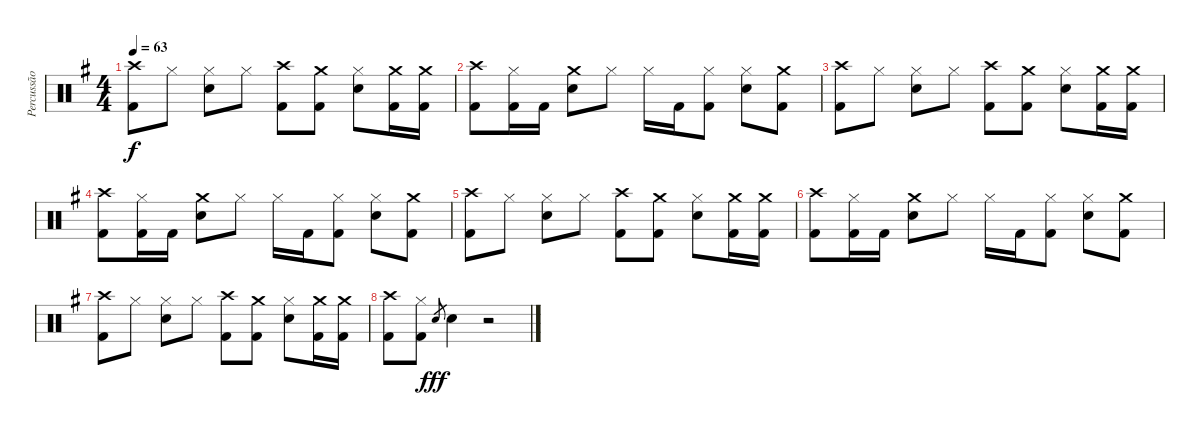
\track ("Percussão" "Percussão") {instrument percussion}
\staff {score}
\articulation defaults
\ts (4 4)
\tempo 63
\clef neutral
\ks g
("Crash high (hit)" "Kick (hit) 2").8{dy f} "Hi-Hat (closed)".8 ("Hi-Hat (closed)" "Electric Snare (hit)").8 "Hi-Hat (closed)".8 ("Crash high (hit)" "Kick (hit) 2").8 ("Crash medium (hit)" "Kick (hit) 2").8 ("Hi-Hat (closed)" "Electric Snare (hit)").8 ("Crash medium (hit)" "Kick (hit) 2").16 ("Crash medium (hit)" "Kick (hit) 2").16 |
("Crash high (hit)" "Kick (hit) 2").8 ("Hi-Hat (closed)" "Kick (hit) 2").16 "Kick (hit) 2".16 ("Crash medium (hit)" "Electric Snare (hit)").8 "Hi-Hat (closed)".8 "Hi-Hat (closed)".16 "Kick (hit) 2".16 ("Hi-Hat (closed)" "Kick (hit) 2").8 ("Hi-Hat (closed)" "Electric Snare (hit)").8 ("Crash medium (hit)" "Kick (hit) 2").8 |
("Crash high (hit)" "Kick (hit) 2").8 "Hi-Hat (closed)".8 ("Hi-Hat (closed)" "Electric Snare (hit)").8 "Hi-Hat (closed)".8 ("Crash high (hit)" "Kick (hit) 2").8 ("Crash medium (hit)" "Kick (hit) 2").8 ("Hi-Hat (closed)" "Electric Snare (hit)").8 ("Crash medium (hit)" "Kick (hit) 2").16 ("Crash medium (hit)" "Kick (hit) 2").16 |
("Crash high (hit)" "Kick (hit) 2").8 ("Hi-Hat (closed)" "Kick (hit) 2").16 "Kick (hit) 2".16 ("Crash medium (hit)" "Electric Snare (hit)").8 "Hi-Hat (closed)".8 "Hi-Hat (closed)".16 "Kick (hit) 2".16 ("Hi-Hat (closed)" "Kick (hit) 2").8 ("Hi-Hat (closed)" "Electric Snare (hit)").8 ("Crash medium (hit)" "Kick (hit) 2").8 |
("Crash high (hit)" "Kick (hit) 2").8 "Hi-Hat (closed)".8 ("Hi-Hat (closed)" "Electric Snare (hit)").8 "Hi-Hat (closed)".8 ("Crash high (hit)" "Kick (hit) 2").8 ("Crash medium (hit)" "Kick (hit) 2").8 ("Hi-Hat (closed)" "Electric Snare (hit)").8 ("Crash medium (hit)" "Kick (hit) 2").16 ("Crash medium (hit)" "Kick (hit) 2").16 |
("Crash high (hit)" "Kick (hit) 2").8 ("Hi-Hat (closed)" "Kick (hit) 2").16 "Kick (hit) 2".16 ("Crash medium (hit)" "Electric Snare (hit)").8 "Hi-Hat (closed)".8 "Hi-Hat (closed)".16 "Kick (hit) 2".16 ("Hi-Hat (closed)" "Kick (hit) 2").8 ("Hi-Hat (closed)" "Electric Snare (hit)").8 ("Crash medium (hit)" "Kick (hit) 2").8 |
("Crash high (hit)" "Kick (hit) 2").8 "Hi-Hat (closed)".8 ("Hi-Hat (closed)" "Electric Snare (hit)").8 "Hi-Hat (closed)".8 ("Crash high (hit)" "Kick (hit) 2").8 ("Crash medium (hit)" "Kick (hit) 2").8 ("Hi-Hat (closed)" "Electric Snare (hit)").8 ("Crash medium (hit)" "Kick (hit) 2").16 ("Crash medium (hit)" "Kick (hit) 2").16 |
("Crash high (hit)" "Kick (hit) 2").8 ("Hi-Hat (closed)" "Kick (hit) 2").8 "Electric Snare (hit)".8{gr dy fff} "Electric Snare (hit)".4 r.2
